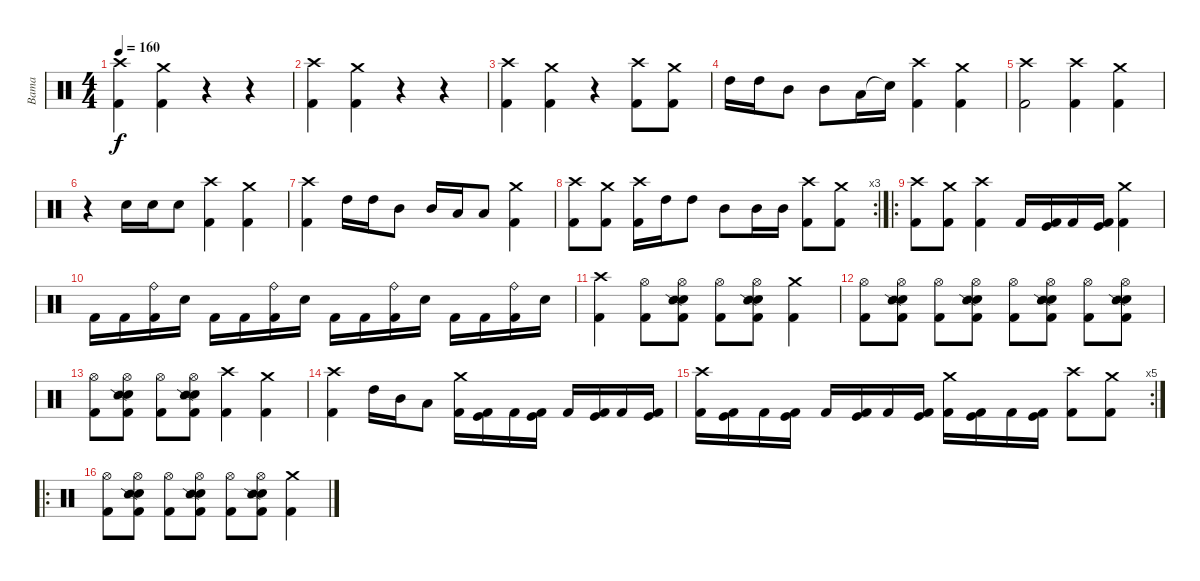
\track ("Bama" "Bama") {instrument percussion}
\staff {score}
\articulation defaults
\ts (4 4)
\tempo 160
\clef neutral
\ks c
("Crash high (hit)" "Kick (hit) 2").4{dy f} ("Crash medium (hit)" "Kick (hit) 2").4 r.4 r.4 |
("Crash high (hit)" "Kick (hit) 2").4 ("Crash medium (hit)" "Kick (hit) 2").4 r.4 r.4 |
("Crash high (hit)" "Kick (hit) 2").4 ("Crash medium (hit)" "Kick (hit) 2").4 r.4 ("Crash high (hit)" "Kick (hit) 2").8 ("Crash medium (hit)" "Kick (hit) 2").8 |
"High Tom (hit)".16 "High Tom (hit)".16 "Mid Tom (hit)".8 "Mid Tom (hit)".8 "Low Tom (hit)".16 "Snare (hit)"{t}.16 ("Crash high (hit)" "Kick (hit) 2").4 ("Crash medium (hit)" "Kick (hit) 2").4 |
("Crash high (hit)" "Kick (hit) 2").2 ("Crash high (hit)" "Kick (hit) 2").4 ("Crash medium (hit)" "Kick (hit) 2").4 |
r.4 "Electric Snare (hit)".16 "Electric Snare (hit)".16 "Electric Snare (hit)".8 ("Crash high (hit)" "Kick (hit) 2").4 ("Crash medium (hit)" "Kick (hit) 2").4 |
("Crash high (hit)" "Kick (hit) 2").4 "High Tom (hit)".16 "High Tom (hit)".16 "Mid Tom (hit)".8 "Mid Tom (hit)".16 "Low Tom (hit)".16 "Low Tom (hit)".8 ("Crash medium (hit)" "Kick (hit) 2").4 |
\rc 3
("Crash high (hit)" "Kick (hit) 2").8 ("Crash medium (hit)" "Kick (hit) 2").8 ("Crash high (hit)" "Kick (hit) 2").16 "High Tom (hit)".16 "High Tom (hit)".8 "Mid Tom (hit)".8 "Mid Tom (hit)".16 "Mid Tom (hit)".16 ("Crash high (hit)" "Kick (hit) 2").8 ("Crash medium (hit)" "Kick (hit) 2").8 |
\ro
("Crash high (hit)" "Kick (hit) 2").8 ("Crash medium (hit)" "Kick (hit) 2").8 ("Crash high (hit)" "Kick (hit) 2").4 "Kick (hit) 2".16 ("Kick (hit)" "Kick (hit) 2").16 "Kick (hit) 2".16 ("Kick (hit)" "Kick (hit) 2").16 ("Crash medium (hit)" "Kick (hit) 2").4 |
"Kick (hit) 2".16 "Kick (hit) 2".16 ("Ride (bell)" "Kick (hit) 2").16 "Electric Snare (hit)".16 "Kick (hit) 2".16 "Kick (hit) 2".16 ("Ride (bell)" "Kick (hit) 2").16 "Electric Snare (hit)".16 "Kick (hit) 2".16 "Kick (hit) 2".16 ("Ride (bell)" "Kick (hit) 2").16 "Electric Snare (hit)".16 "Kick (hit) 2".16 "Kick (hit) 2".16 ("Ride (bell)" "Kick (hit) 2").16 "Electric Snare (hit)".16 |
("Crash high (hit)" "Kick (hit) 2").4 ("Hi-Hat (open)" "Kick (hit) 2").8 ("Hi-Hat (open)" "Electric Snare (hit)" "Snare (side stick) 2" "Kick (hit) 2").8 ("Hi-Hat (open)" "Kick (hit) 2").8 ("Hi-Hat (open)" "Electric Snare (hit)" "Snare (side stick) 2" "Kick (hit) 2").8 ("Crash medium (hit)" "Kick (hit) 2").4 |
("Hi-Hat (open)" "Kick (hit) 2").8 ("Hi-Hat (open)" "Electric Snare (hit)" "Snare (side stick) 2" "Kick (hit) 2").8 ("Hi-Hat (open)" "Kick (hit) 2").8 ("Hi-Hat (open)" "Electric Snare (hit)" "Snare (side stick) 2" "Kick (hit) 2").8 ("Hi-Hat (open)" "Kick (hit) 2").8 ("Hi-Hat (open)" "Electric Snare (hit)" "Snare (side stick) 2" "Kick (hit) 2").8 ("Hi-Hat (open)" "Kick (hit) 2").8 ("Hi-Hat (open)" "Electric Snare (hit)" "Snare (side stick) 2" "Kick (hit) 2").8 |
("Hi-Hat (open)" "Kick (hit) 2").8 ("Hi-Hat (open)" "Electric Snare (hit)" "Snare (side stick) 2" "Kick (hit) 2").8 ("Hi-Hat (open)" "Kick (hit) 2").8 ("Hi-Hat (open)" "Electric Snare (hit)" "Snare (side stick) 2" "Kick (hit) 2").8 ("Crash high (hit)" "Kick (hit) 2").4 ("Crash medium (hit)" "Kick (hit) 2").4 |
("Crash high (hit)" "Kick (hit) 2").4 "High Tom (hit)".16 "Mid Tom (hit)".16 "Low Tom (hit)".8 ("Crash medium (hit)" "Kick (hit) 2").16 ("Kick (hit)" "Kick (hit) 2").16 "Kick (hit) 2".16 ("Kick (hit)" "Kick (hit) 2").16 "Kick (hit) 2".16 ("Kick (hit)" "Kick (hit) 2").16 "Kick (hit) 2".16 ("Kick (hit)" "Kick (hit) 2").16 |
\rc 5
("Crash high (hit)" "Kick (hit) 2").16 ("Kick (hit)" "Kick (hit) 2").16 "Kick (hit) 2".16 ("Kick (hit)" "Kick (hit) 2").16 "Kick (hit) 2".16 ("Kick (hit)" "Kick (hit) 2").16 "Kick (hit) 2".16 ("Kick (hit)" "Kick (hit) 2").16 ("Crash medium (hit)" "Kick (hit) 2").16 ("Kick (hit)" "Kick (hit) 2").16 "Kick (hit) 2".16 ("Kick (hit)" "Kick (hit) 2").16 ("Crash high (hit)" "Kick (hit) 2").8 ("Crash medium (hit)" "Kick (hit) 2").8 |
\ro
("Hi-Hat (open)" "Kick (hit) 2").8 ("Hi-Hat (open)" "Electric Snare (hit)" "Snare (side stick) 2" "Kick (hit) 2").8 ("Hi-Hat (open)" "Kick (hit) 2").8 ("Hi-Hat (open)" "Electric Snare (hit)" "Snare (side stick) 2" "Kick (hit) 2").8 ("Hi-Hat (open)" "Kick (hit) 2").8 ("Hi-Hat (open)" "Electric Snare (hit)" "Snare (side stick) 2" "Kick (hit) 2").8 ("Crash medium (hit)" "Kick (hit) 2").4
